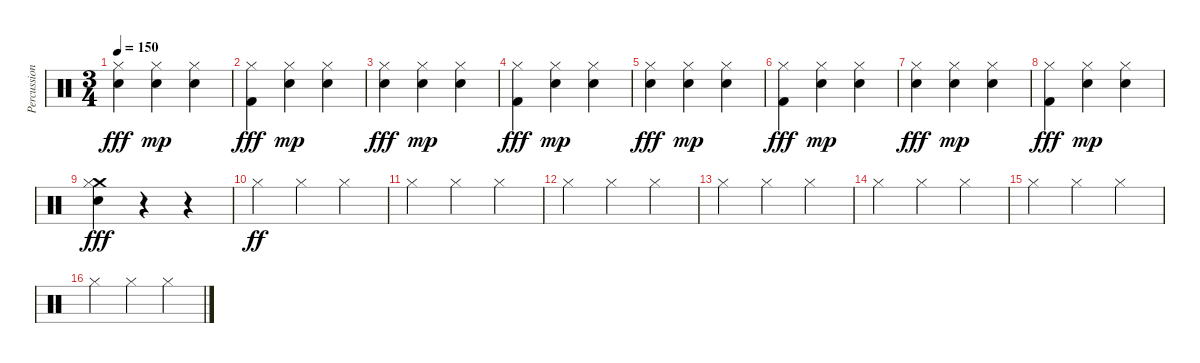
\track ("Percussion" "Percussion") {instrument percussion}
\staff {score}
\articulation defaults
\ts (3 4)
\tempo 150
\clef neutral
\ks c
("Hi-Hat (closed)" "Electric Snare (hit)").4{dy fff} ("Hi-Hat (closed)" "Electric Snare (hit)").4{dy mp} ("Hi-Hat (closed)" "Electric Snare (hit)").4 |
("Hi-Hat (closed)" "Kick (hit) 2").4{dy fff} ("Hi-Hat (closed)" "Electric Snare (hit)").4{dy mp} ("Hi-Hat (closed)" "Electric Snare (hit)").4 |
("Hi-Hat (closed)" "Electric Snare (hit)").4{dy fff} ("Hi-Hat (closed)" "Electric Snare (hit)").4{dy mp} ("Hi-Hat (closed)" "Electric Snare (hit)").4 |
("Hi-Hat (closed)" "Kick (hit) 2").4{dy fff} ("Hi-Hat (closed)" "Electric Snare (hit)").4{dy mp} ("Hi-Hat (closed)" "Electric Snare (hit)").4 |
("Hi-Hat (closed)" "Electric Snare (hit)").4{dy fff} ("Hi-Hat (closed)" "Electric Snare (hit)").4{dy mp} ("Hi-Hat (closed)" "Electric Snare (hit)").4 |
("Hi-Hat (closed)" "Kick (hit) 2").4{dy fff} ("Hi-Hat (closed)" "Electric Snare (hit)").4{dy mp} ("Hi-Hat (closed)" "Electric Snare (hit)").4 |
("Hi-Hat (closed)" "Electric Snare (hit)").4{dy fff} ("Hi-Hat (closed)" "Electric Snare (hit)").4{dy mp} ("Hi-Hat (closed)" "Electric Snare (hit)").4 |
("Hi-Hat (closed)" "Kick (hit) 2").4{dy fff} ("Hi-Hat (closed)" "Electric Snare (hit)").4{dy mp} ("Hi-Hat (closed)" "Electric Snare (hit)").4 |
("Crash medium (hit)" "Hi-Hat (closed)" "Electric Snare (hit)").4{dy fff} r.4 r.4 |
"Hi-Hat (closed)".4{dy ff} "Hi-Hat (closed)".4 "Hi-Hat (closed)".4 |
"Hi-Hat (closed)".4 "Hi-Hat (closed)".4 "Hi-Hat (closed)".4 |
"Hi-Hat (closed)".4 "Hi-Hat (closed)".4 "Hi-Hat (closed)".4 |
"Hi-Hat (closed)".4 "Hi-Hat (closed)".4 "Hi-Hat (closed)".4 |
"Hi-Hat (closed)".4 "Hi-Hat (closed)".4 "Hi-Hat (closed)".4 |
"Hi-Hat (closed)".4 "Hi-Hat (closed)".4 "Hi-Hat (closed)".4 |
"Hi-Hat (closed)".4 "Hi-Hat (closed)".4 "Hi-Hat (closed)".4
